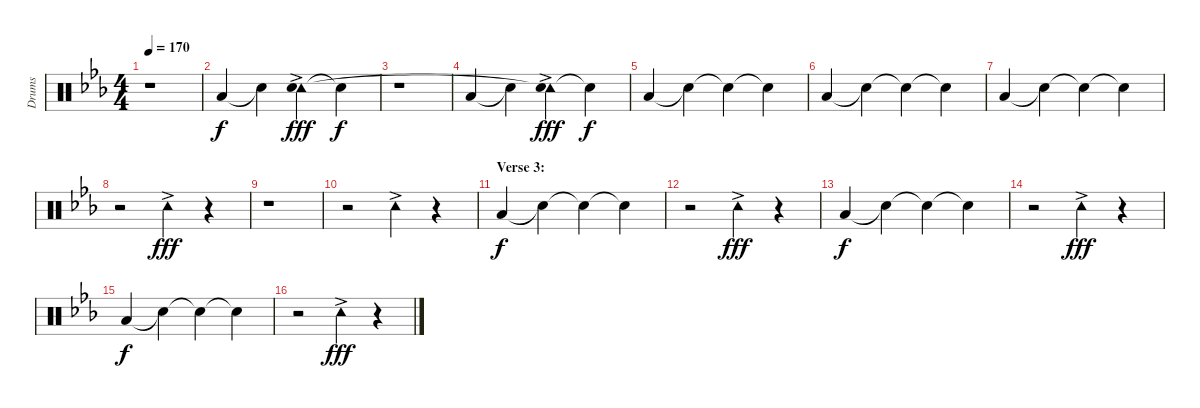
\track ("Drums" "Drums") {instrument percussion}
\staff {score}
\articulation defaults
\ts (4 4)
\tempo 170
\clef neutral
\ks cminor
r.1{dy f} |
"Low Floor Tom (hit)".4 "Snare (hit)"{t}.4 ("Tambourine (hit)"{ac} "Snare (hit)"{t}).4{dy fff} "Snare (hit)"{t}.4{dy f} |
r.1 |
"Low Floor Tom (hit)".4 "Snare (hit)"{t}.4 ("Tambourine (hit)"{ac} "Snare (hit)"{t}).4{dy fff} "Snare (hit)"{t}.4{dy f} |
"Low Floor Tom (hit)".4 "Snare (hit)"{t}.4 "Snare (hit)"{t}.4 "Snare (hit)"{t}.4 |
"Low Floor Tom (hit)".4 "Snare (hit)"{t}.4 "Snare (hit)"{t}.4 "Snare (hit)"{t}.4 |
"Low Floor Tom (hit)".4 "Snare (hit)"{t}.4 "Snare (hit)"{t}.4 "Snare (hit)"{t}.4 |
r.2 "Tambourine (hit)"{ac}.4{dy fff} r.4 |
r.1 |
r.2 "Tambourine (hit)"{ac}.4 r.4 |
\section ("" "Verse 3:")
"Low Floor Tom (hit)".4{dy f} "Snare (hit)"{t}.4 "Snare (hit)"{t}.4 "Snare (hit)"{t}.4 |
r.2 "Tambourine (hit)"{ac}.4{dy fff} r.4 |
"Low Floor Tom (hit)".4{dy f} "Snare (hit)"{t}.4 "Snare (hit)"{t}.4 "Snare (hit)"{t}.4 |
r.2 "Tambourine (hit)"{ac}.4{dy fff} r.4 |
"Low Floor Tom (hit)".4{dy f} "Snare (hit)"{t}.4 "Snare (hit)"{t}.4 "Snare (hit)"{t}.4 |
r.2 "Tambourine (hit)"{ac}.4{dy fff} r.4
